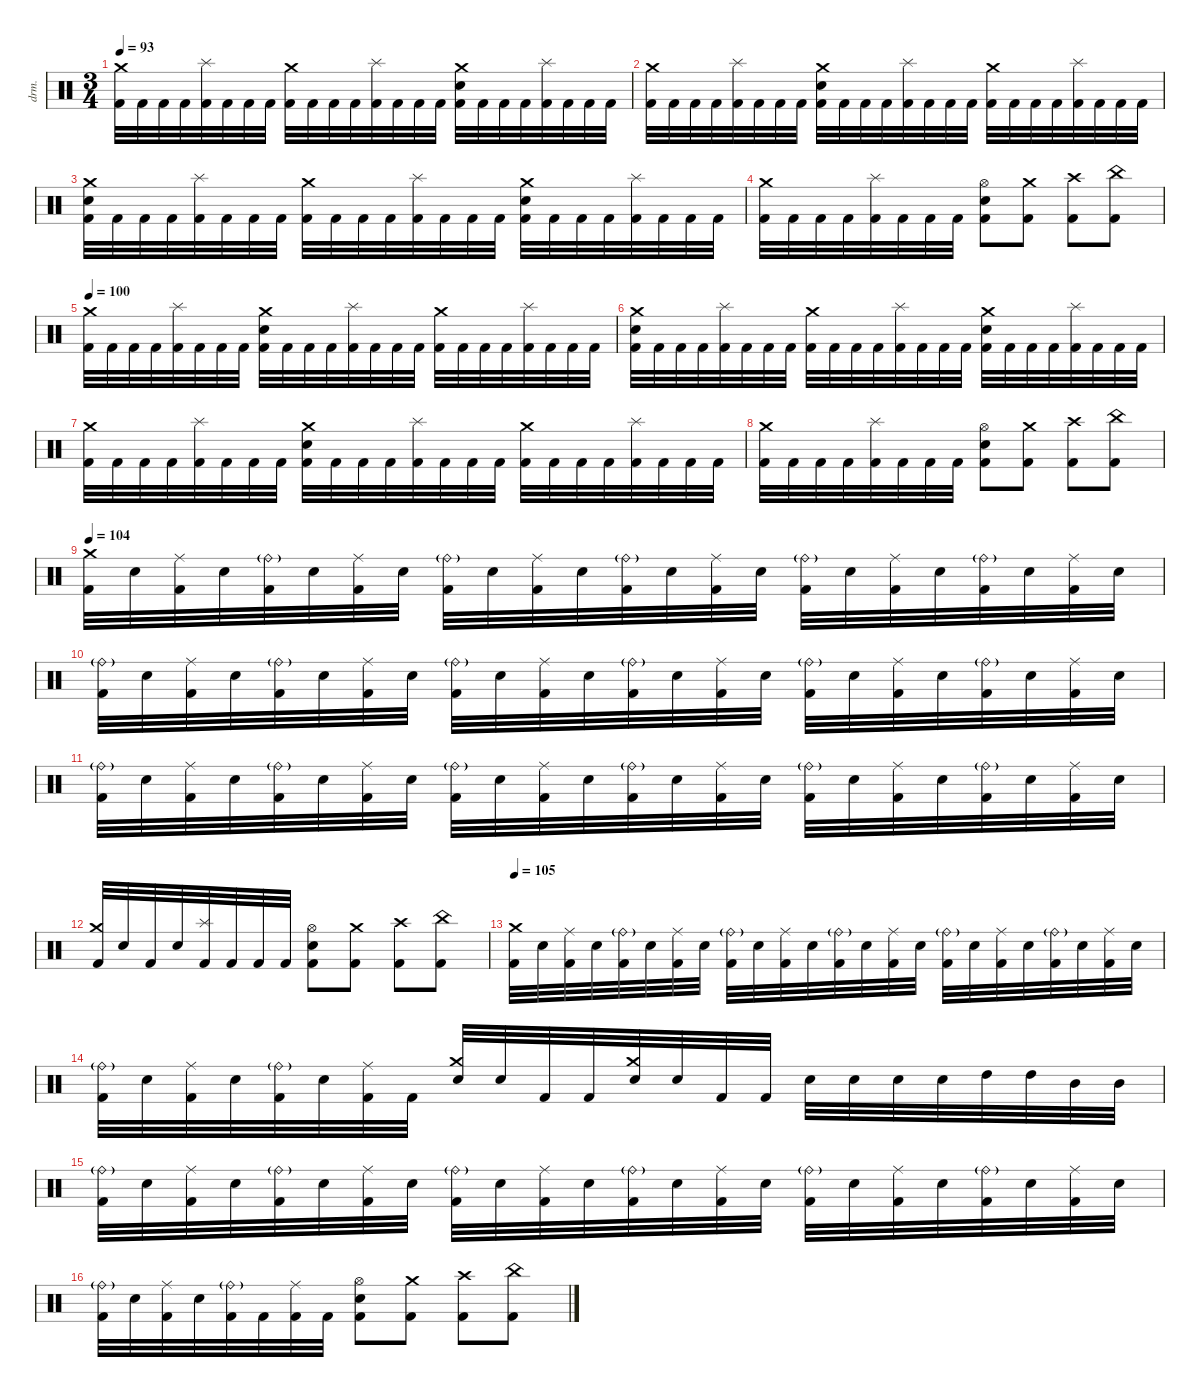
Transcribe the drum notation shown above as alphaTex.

\hideDynamics
\bracketExtendMode nobrackets
\track ("Drums" "drm.") {instrument percussion}
\staff {score}
\articulation defaults
\ts (3 4)
\tempo 93
\clef neutral
\ks c
("Kick (hit) 2" "Crash medium (hit)").32{dy mf beam Down} "Kick (hit) 2".32{beam Down} "Kick (hit) 2".32{beam Down} "Kick (hit) 2".32{beam Down} ("Kick (hit) 2" "Splash (hit)").32{beam Down} "Kick (hit) 2".32{beam Down} "Kick (hit) 2".32{beam Down} "Kick (hit) 2".32{beam Down} ("Kick (hit) 2" "Crash medium (hit)").32{beam Down} "Kick (hit) 2".32{beam Down} "Kick (hit) 2".32{beam Down} "Kick (hit) 2".32{beam Down} ("Kick (hit) 2" "Splash (hit)").32{beam Down} "Kick (hit) 2".32{beam Down} "Kick (hit) 2".32{beam Down} "Kick (hit) 2".32{beam Down} ("Kick (hit) 2" "Crash medium (hit)" "Snare (hit) 2").32{beam Down} "Kick (hit) 2".32{beam Down} "Kick (hit) 2".32{beam Down} "Kick (hit) 2".32{beam Down} ("Kick (hit) 2" "Splash (hit)").32{beam Down} "Kick (hit) 2".32{beam Down} "Kick (hit) 2".32{beam Down} "Kick (hit) 2".32{beam Down} |
("Kick (hit) 2" "Crash medium (hit)").32{beam Down} "Kick (hit) 2".32{beam Down} "Kick (hit) 2".32{beam Down} "Kick (hit) 2".32{beam Down} ("Kick (hit) 2" "Splash (hit)").32{beam Down} "Kick (hit) 2".32{beam Down} "Kick (hit) 2".32{beam Down} "Kick (hit) 2".32{beam Down} ("Kick (hit) 2" "Crash medium (hit)" "Snare (hit) 2").32{beam Down} "Kick (hit) 2".32{beam Down} "Kick (hit) 2".32{beam Down} "Kick (hit) 2".32{beam Down} ("Kick (hit) 2" "Splash (hit)").32{beam Down} "Kick (hit) 2".32{beam Down} "Kick (hit) 2".32{beam Down} "Kick (hit) 2".32{beam Down} ("Kick (hit) 2" "Crash medium (hit)").32{beam Down} "Kick (hit) 2".32{beam Down} "Kick (hit) 2".32{beam Down} "Kick (hit) 2".32{beam Down} ("Kick (hit) 2" "Splash (hit)").32{beam Down} "Kick (hit) 2".32{beam Down} "Kick (hit) 2".32{beam Down} "Kick (hit) 2".32{beam Down} |
("Kick (hit) 2" "Crash medium (hit)" "Snare (hit) 2").32{beam Down} "Kick (hit) 2".32{beam Down} "Kick (hit) 2".32{beam Down} "Kick (hit) 2".32{beam Down} ("Kick (hit) 2" "Splash (hit)").32{beam Down} "Kick (hit) 2".32{beam Down} "Kick (hit) 2".32{beam Down} "Kick (hit) 2".32{beam Down} ("Kick (hit) 2" "Crash medium (hit)").32{beam Down} "Kick (hit) 2".32{beam Down} "Kick (hit) 2".32{beam Down} "Kick (hit) 2".32{beam Down} ("Kick (hit) 2" "Splash (hit)").32{beam Down} "Kick (hit) 2".32{beam Down} "Kick (hit) 2".32{beam Down} "Kick (hit) 2".32{beam Down} ("Kick (hit) 2" "Crash medium (hit)" "Snare (hit) 2").32{beam Down} "Kick (hit) 2".32{beam Down} "Kick (hit) 2".32{beam Down} "Kick (hit) 2".32{beam Down} ("Kick (hit) 2" "Splash (hit)").32{beam Down} "Kick (hit) 2".32{beam Down} "Kick (hit) 2".32{beam Down} "Kick (hit) 2".32{beam Down} |
("Kick (hit) 2" "Crash medium (hit)").32{beam Down} "Kick (hit) 2".32{beam Down} "Kick (hit) 2".32{beam Down} "Kick (hit) 2".32{beam Down} ("Kick (hit) 2" "Splash (hit)").32{beam Down} "Kick (hit) 2".32{beam Down} "Kick (hit) 2".32{beam Down} "Kick (hit) 2".32{beam Down} ("Snare (hit) 2" "Kick (hit) 2" "Hi-Hat (open)").8{beam Down} ("Kick (hit) 2" "Crash medium (hit)").8{beam Down} ("Kick (hit) 2" "Crash high (hit)").8{beam Down} ("Kick (hit) 2" "China (hit)").8{beam Down} |
\tempo 100
("Kick (hit) 2" "Crash medium (hit)").32{beam Down} "Kick (hit) 2".32{beam Down} "Kick (hit) 2".32{beam Down} "Kick (hit) 2".32{beam Down} ("Kick (hit) 2" "Splash (hit)").32{beam Down} "Kick (hit) 2".32{beam Down} "Kick (hit) 2".32{beam Down} "Kick (hit) 2".32{beam Down} ("Kick (hit) 2" "Crash medium (hit)" "Snare (hit) 2").32{beam Down} "Kick (hit) 2".32{beam Down} "Kick (hit) 2".32{beam Down} "Kick (hit) 2".32{beam Down} ("Kick (hit) 2" "Splash (hit)").32{beam Down} "Kick (hit) 2".32{beam Down} "Kick (hit) 2".32{beam Down} "Kick (hit) 2".32{beam Down} ("Kick (hit) 2" "Crash medium (hit)").32{beam Down} "Kick (hit) 2".32{beam Down} "Kick (hit) 2".32{beam Down} "Kick (hit) 2".32{beam Down} ("Kick (hit) 2" "Splash (hit)").32{beam Down} "Kick (hit) 2".32{beam Down} "Kick (hit) 2".32{beam Down} "Kick (hit) 2".32{beam Down} |
("Kick (hit) 2" "Crash medium (hit)" "Snare (hit) 2").32{beam Down} "Kick (hit) 2".32{beam Down} "Kick (hit) 2".32{beam Down} "Kick (hit) 2".32{beam Down} ("Kick (hit) 2" "Splash (hit)").32{beam Down} "Kick (hit) 2".32{beam Down} "Kick (hit) 2".32{beam Down} "Kick (hit) 2".32{beam Down} ("Kick (hit) 2" "Crash medium (hit)").32{beam Down} "Kick (hit) 2".32{beam Down} "Kick (hit) 2".32{beam Down} "Kick (hit) 2".32{beam Down} ("Kick (hit) 2" "Splash (hit)").32{beam Down} "Kick (hit) 2".32{beam Down} "Kick (hit) 2".32{beam Down} "Kick (hit) 2".32{beam Down} ("Kick (hit) 2" "Crash medium (hit)" "Snare (hit) 2").32{beam Down} "Kick (hit) 2".32{beam Down} "Kick (hit) 2".32{beam Down} "Kick (hit) 2".32{beam Down} ("Kick (hit) 2" "Splash (hit)").32{beam Down} "Kick (hit) 2".32{beam Down} "Kick (hit) 2".32{beam Down} "Kick (hit) 2".32{beam Down} |
("Kick (hit) 2" "Crash medium (hit)").32{beam Down} "Kick (hit) 2".32{beam Down} "Kick (hit) 2".32{beam Down} "Kick (hit) 2".32{beam Down} ("Kick (hit) 2" "Splash (hit)").32{beam Down} "Kick (hit) 2".32{beam Down} "Kick (hit) 2".32{beam Down} "Kick (hit) 2".32{beam Down} ("Kick (hit) 2" "Crash medium (hit)" "Snare (hit) 2").32{beam Down} "Kick (hit) 2".32{beam Down} "Kick (hit) 2".32{beam Down} "Kick (hit) 2".32{beam Down} ("Kick (hit) 2" "Splash (hit)").32{beam Down} "Kick (hit) 2".32{beam Down} "Kick (hit) 2".32{beam Down} "Kick (hit) 2".32{beam Down} ("Kick (hit) 2" "Crash medium (hit)").32{beam Down} "Kick (hit) 2".32{beam Down} "Kick (hit) 2".32{beam Down} "Kick (hit) 2".32{beam Down} ("Kick (hit) 2" "Splash (hit)").32{beam Down} "Kick (hit) 2".32{beam Down} "Kick (hit) 2".32{beam Down} "Kick (hit) 2".32{beam Down} |
("Kick (hit) 2" "Crash medium (hit)").32{beam Down} "Kick (hit) 2".32{beam Down} "Kick (hit) 2".32{beam Down} "Kick (hit) 2".32{beam Down} ("Kick (hit) 2" "Splash (hit)").32{beam Down} "Kick (hit) 2".32{beam Down} "Kick (hit) 2".32{beam Down} "Kick (hit) 2".32{beam Down} ("Snare (hit) 2" "Kick (hit) 2" "Hi-Hat (open)").8{beam Down} ("Kick (hit) 2" "Crash medium (hit)").8{beam Down} ("Kick (hit) 2" "Crash high (hit)").8{beam Down} ("Kick (hit) 2" "China (hit)").8{beam Down} |
\tempo 104
("Kick (hit) 2" "Crash medium (hit)").32{beam Down} "Snare (hit) 2".32{beam Down} ("Kick (hit) 2" "Ride (middle)").32{beam Down} "Snare (hit) 2".32{beam Down} ("Kick (hit) 2" "Ride (bell)"{g}).32{beam Down} "Snare (hit) 2".32{beam Down} ("Kick (hit) 2" "Ride (middle)").32{beam Down} "Snare (hit) 2".32{beam Down} ("Kick (hit) 2" "Ride (bell)"{g}).32{beam Down} "Snare (hit) 2".32{beam Down} ("Kick (hit) 2" "Ride (middle)").32{beam Down} "Snare (hit) 2".32{beam Down} ("Kick (hit) 2" "Ride (bell)"{g}).32{beam Down} "Snare (hit) 2".32{beam Down} ("Kick (hit) 2" "Ride (middle)").32{beam Down} "Snare (hit) 2".32{beam Down} ("Kick (hit) 2" "Ride (bell)"{g}).32{beam Down} "Snare (hit) 2".32{beam Down} ("Kick (hit) 2" "Ride (middle)").32{beam Down} "Snare (hit) 2".32{beam Down} ("Kick (hit) 2" "Ride (bell)"{g}).32{beam Down} "Snare (hit) 2".32{beam Down} ("Kick (hit) 2" "Ride (middle)").32{beam Down} "Snare (hit) 2".32{beam Down} |
("Kick (hit) 2" "Ride (bell)"{g}).32{beam Down} "Snare (hit) 2".32{beam Down} ("Kick (hit) 2" "Ride (middle)").32{beam Down} "Snare (hit) 2".32{beam Down} ("Kick (hit) 2" "Ride (bell)"{g}).32{beam Down} "Snare (hit) 2".32{beam Down} ("Kick (hit) 2" "Ride (middle)").32{beam Down} "Snare (hit) 2".32{beam Down} ("Kick (hit) 2" "Ride (bell)"{g}).32{beam Down} "Snare (hit) 2".32{beam Down} ("Kick (hit) 2" "Ride (middle)").32{beam Down} "Snare (hit) 2".32{beam Down} ("Kick (hit) 2" "Ride (bell)"{g}).32{beam Down} "Snare (hit) 2".32{beam Down} ("Kick (hit) 2" "Ride (middle)").32{beam Down} "Snare (hit) 2".32{beam Down} ("Kick (hit) 2" "Ride (bell)"{g}).32{beam Down} "Snare (hit) 2".32{beam Down} ("Kick (hit) 2" "Ride (middle)").32{beam Down} "Snare (hit) 2".32{beam Down} ("Kick (hit) 2" "Ride (bell)"{g}).32{beam Down} "Snare (hit) 2".32{beam Down} ("Kick (hit) 2" "Ride (middle)").32{beam Down} "Snare (hit) 2".32{beam Down} |
("Kick (hit) 2" "Ride (bell)"{g}).32{beam Down} "Snare (hit) 2".32{beam Down} ("Kick (hit) 2" "Ride (middle)").32{beam Down} "Snare (hit) 2".32{beam Down} ("Kick (hit) 2" "Ride (bell)"{g}).32{beam Down} "Snare (hit) 2".32{beam Down} ("Kick (hit) 2" "Ride (middle)").32{beam Down} "Snare (hit) 2".32{beam Down} ("Kick (hit) 2" "Ride (bell)"{g}).32{beam Down} "Snare (hit) 2".32{beam Down} ("Kick (hit) 2" "Ride (middle)").32{beam Down} "Snare (hit) 2".32{beam Down} ("Kick (hit) 2" "Ride (bell)"{g}).32{beam Down} "Snare (hit) 2".32{beam Down} ("Kick (hit) 2" "Ride (middle)").32{beam Down} "Snare (hit) 2".32{beam Down} ("Kick (hit) 2" "Ride (bell)"{g}).32{beam Down} "Snare (hit) 2".32{beam Down} ("Kick (hit) 2" "Ride (middle)").32{beam Down} "Snare (hit) 2".32{beam Down} ("Kick (hit) 2" "Ride (bell)"{g}).32{beam Down} "Snare (hit) 2".32{beam Down} ("Kick (hit) 2" "Ride (middle)").32{beam Down} "Snare (hit) 2".32{beam Down} |
("Kick (hit) 2" "Crash medium (hit)").32{beam Up} "Snare (hit) 2".32{beam Up} "Kick (hit) 2".32{beam Up} "Snare (hit) 2".32{beam Up} ("Kick (hit) 2" "Splash (hit)").32{beam Up} "Kick (hit) 2".32{beam Up} "Kick (hit) 2".32{beam Up} "Kick (hit) 2".32{beam Up} ("Snare (hit) 2" "Kick (hit) 2" "Hi-Hat (open)").8{beam Down} ("Kick (hit) 2" "Crash medium (hit)").8{beam Down} ("Kick (hit) 2" "Crash high (hit)").8{beam Down} ("Kick (hit) 2" "China (hit)").8{beam Down} |
\tempo 105
("Kick (hit) 2" "Crash medium (hit)").32{beam Down} "Snare (hit) 2".32{beam Down} ("Kick (hit) 2" "Ride (middle)").32{beam Down} "Snare (hit) 2".32{beam Down} ("Kick (hit) 2" "Ride (bell)"{g}).32{beam Down} "Snare (hit) 2".32{beam Down} ("Kick (hit) 2" "Ride (middle)").32{beam Down} "Snare (hit) 2".32{beam Down} ("Kick (hit) 2" "Ride (bell)"{g}).32{beam Down} "Snare (hit) 2".32{beam Down} ("Kick (hit) 2" "Ride (middle)").32{beam Down} "Snare (hit) 2".32{beam Down} ("Kick (hit) 2" "Ride (bell)"{g}).32{beam Down} "Snare (hit) 2".32{beam Down} ("Kick (hit) 2" "Ride (middle)").32{beam Down} "Snare (hit) 2".32{beam Down} ("Kick (hit) 2" "Ride (bell)"{g}).32{beam Down} "Snare (hit) 2".32{beam Down} ("Kick (hit) 2" "Ride (middle)").32{beam Down} "Snare (hit) 2".32{beam Down} ("Kick (hit) 2" "Ride (bell)"{g}).32{beam Down} "Snare (hit) 2".32{beam Down} ("Kick (hit) 2" "Ride (middle)").32{beam Down} "Snare (hit) 2".32{beam Down} |
("Kick (hit) 2" "Ride (bell)"{g}).32{beam Down} "Snare (hit) 2".32{beam Down} ("Kick (hit) 2" "Ride (middle)").32{beam Down} "Snare (hit) 2".32{beam Down} ("Kick (hit) 2" "Ride (bell)"{g}).32{beam Down} "Snare (hit) 2".32{beam Down} ("Kick (hit) 2" "Ride (middle)").32{beam Down} "Kick (hit) 2".32{beam Down} ("Snare (hit) 2" "Crash medium (hit)").32{beam Up} "Snare (hit) 2".32{beam Up} "Kick (hit) 2".32{beam Up} "Kick (hit) 2".32{beam Up} ("Snare (hit) 2" "Crash medium (hit)").32{beam Up} "Snare (hit) 2".32{beam Up} "Kick (hit) 2".32{beam Up} "Kick (hit) 2".32{beam Up} "Snare (hit) 2".32{beam Down} "Snare (hit) 2".32{beam Down} "Snare (hit) 2".32{beam Down} "Snare (hit) 2".32{beam Down} "High Tom (hit)".32{beam Down} "High Tom (hit)".32{beam Down} "Mid Tom (hit)".32{beam Down} "Mid Tom (hit)".32{beam Down} |
("Kick (hit) 2" "Ride (bell)"{g}).32{beam Down} "Snare (hit) 2".32{beam Down} ("Kick (hit) 2" "Ride (middle)").32{beam Down} "Snare (hit) 2".32{beam Down} ("Kick (hit) 2" "Ride (bell)"{g}).32{beam Down} "Snare (hit) 2".32{beam Down} ("Kick (hit) 2" "Ride (middle)").32{beam Down} "Snare (hit) 2".32{beam Down} ("Kick (hit) 2" "Ride (bell)"{g}).32{beam Down} "Snare (hit) 2".32{beam Down} ("Kick (hit) 2" "Ride (middle)").32{beam Down} "Snare (hit) 2".32{beam Down} ("Kick (hit) 2" "Ride (bell)"{g}).32{beam Down} "Snare (hit) 2".32{beam Down} ("Kick (hit) 2" "Ride (middle)").32{beam Down} "Snare (hit) 2".32{beam Down} ("Kick (hit) 2" "Ride (bell)"{g}).32{beam Down} "Snare (hit) 2".32{beam Down} ("Kick (hit) 2" "Ride (middle)").32{beam Down} "Snare (hit) 2".32{beam Down} ("Kick (hit) 2" "Ride (bell)"{g}).32{beam Down} "Snare (hit) 2".32{beam Down} ("Kick (hit) 2" "Ride (middle)").32{beam Down} "Snare (hit) 2".32{beam Down} |
("Kick (hit) 2" "Ride (bell)"{g}).32{beam Down} "Snare (hit) 2".32{beam Down} ("Kick (hit) 2" "Ride (middle)").32{beam Down} "Snare (hit) 2".32{beam Down} ("Kick (hit) 2" "Ride (bell)"{g}).32{beam Down} "Kick (hit) 2".32{beam Down} ("Kick (hit) 2" "Ride (middle)").32{beam Down} "Kick (hit) 2".32{beam Down} ("Snare (hit) 2" "Kick (hit) 2" "Hi-Hat (open)").8{beam Down} ("Kick (hit) 2" "Crash medium (hit)").8{beam Down} ("Kick (hit) 2" "Crash high (hit)").8{beam Down} ("Kick (hit) 2" "China (hit)").8{beam Down}
